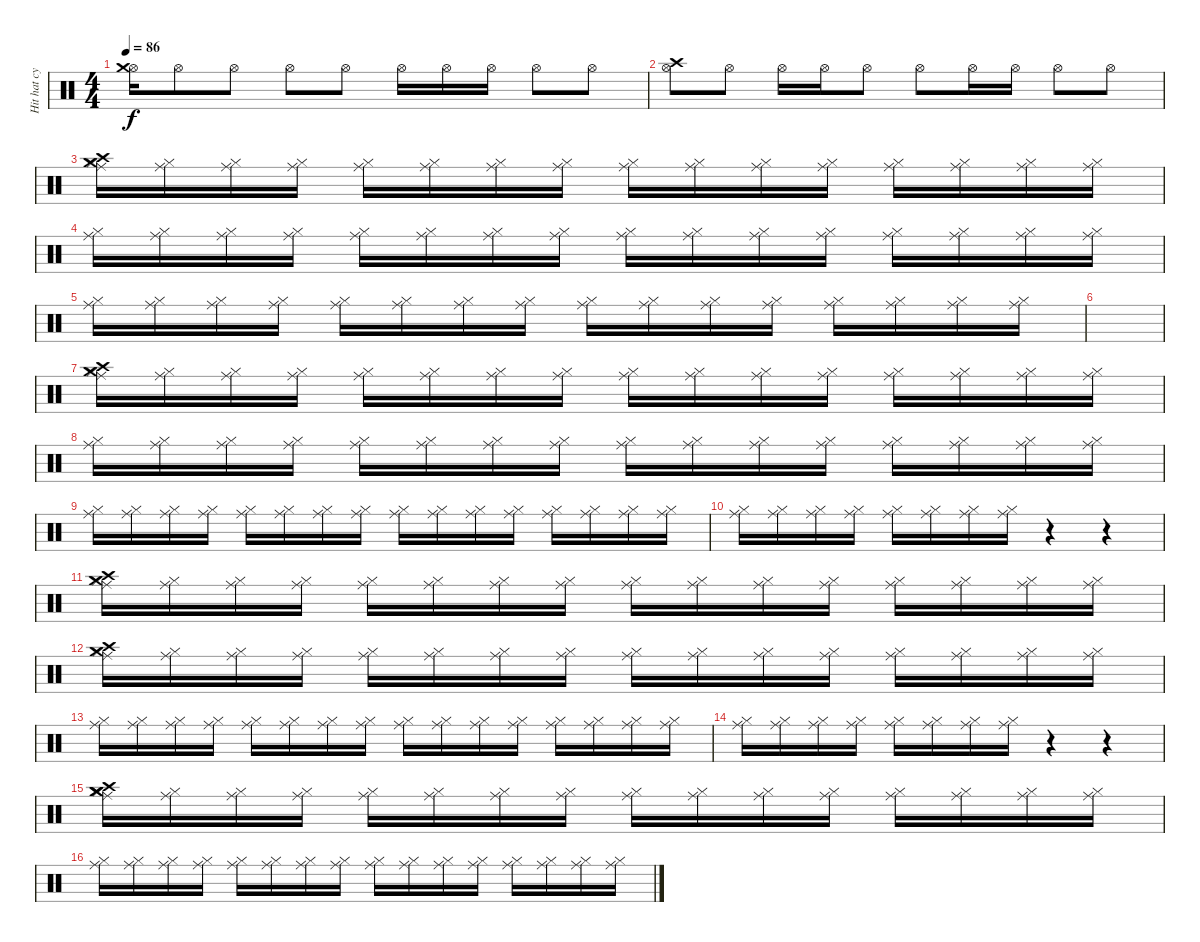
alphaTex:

\track ("Hit hat cymbal" "Hit hat cy") {instrument percussion}
\staff {score}
\articulation defaults
\ts (4 4)
\tempo 86
\clef neutral
\ks c
("Hi-Hat (open)" "Crash medium (hit)").16{dy f} "Hi-Hat (open)".8 "Hi-Hat (open)".8 "Hi-Hat (open)".8 "Hi-Hat (open)".8 "Hi-Hat (open)".16 "Hi-Hat (open)".16 "Hi-Hat (open)".16 "Hi-Hat (open)".8 "Hi-Hat (open)".8 |
("Hi-Hat (open)" "Crash high (hit)").8 "Hi-Hat (open)".8 "Hi-Hat (open)".16 "Hi-Hat (open)".16 "Hi-Hat (open)".8 "Hi-Hat (open)".8 "Hi-Hat (open)".16 "Hi-Hat (open)".16 "Hi-Hat (open)".8 "Hi-Hat (open)".8 |
("Ride (middle)" "Hi-Hat (closed)" "Crash medium (hit)" "Crash high (hit)").16 ("Ride (middle)" "Hi-Hat (closed)").16 ("Ride (middle)" "Hi-Hat (closed)").16 ("Ride (middle)" "Hi-Hat (closed)").16 ("Ride (middle)" "Hi-Hat (closed)").16 ("Ride (middle)" "Hi-Hat (closed)").16 ("Ride (middle)" "Hi-Hat (closed)").16 ("Ride (middle)" "Hi-Hat (closed)").16 ("Ride (middle)" "Hi-Hat (closed)").16 ("Ride (middle)" "Hi-Hat (closed)").16 ("Ride (middle)" "Hi-Hat (closed)").16 ("Ride (middle)" "Hi-Hat (closed)").16 ("Ride (middle)" "Hi-Hat (closed)").16 ("Ride (middle)" "Hi-Hat (closed)").16 ("Ride (middle)" "Hi-Hat (closed)").16 ("Ride (middle)" "Hi-Hat (closed)").16 |
("Ride (middle)" "Hi-Hat (closed)").16 ("Ride (middle)" "Hi-Hat (closed)").16 ("Ride (middle)" "Hi-Hat (closed)").16 ("Ride (middle)" "Hi-Hat (closed)").16 ("Ride (middle)" "Hi-Hat (closed)").16 ("Ride (middle)" "Hi-Hat (closed)").16 ("Ride (middle)" "Hi-Hat (closed)").16 ("Ride (middle)" "Hi-Hat (closed)").16 ("Ride (middle)" "Hi-Hat (closed)").16 ("Ride (middle)" "Hi-Hat (closed)").16 ("Ride (middle)" "Hi-Hat (closed)").16 ("Ride (middle)" "Hi-Hat (closed)").16 ("Ride (middle)" "Hi-Hat (closed)").16 ("Ride (middle)" "Hi-Hat (closed)").16 ("Ride (middle)" "Hi-Hat (closed)").16 ("Ride (middle)" "Hi-Hat (closed)").16 |
("Ride (middle)" "Hi-Hat (closed)").16 ("Ride (middle)" "Hi-Hat (closed)").16 ("Ride (middle)" "Hi-Hat (closed)").16 ("Ride (middle)" "Hi-Hat (closed)").16 ("Ride (middle)" "Hi-Hat (closed)").16 ("Ride (middle)" "Hi-Hat (closed)").16 ("Ride (middle)" "Hi-Hat (closed)").16 ("Ride (middle)" "Hi-Hat (closed)").16 ("Ride (middle)" "Hi-Hat (closed)").16 ("Ride (middle)" "Hi-Hat (closed)").16 ("Ride (middle)" "Hi-Hat (closed)").16 ("Ride (middle)" "Hi-Hat (closed)").16 ("Ride (middle)" "Hi-Hat (closed)").16 ("Ride (middle)" "Hi-Hat (closed)").16 ("Ride (middle)" "Hi-Hat (closed)").16 ("Ride (middle)" "Hi-Hat (closed)").16 |
|
("Ride (middle)" "Hi-Hat (closed)" "Crash medium (hit)" "Crash high (hit)").16 ("Ride (middle)" "Hi-Hat (closed)").16 ("Ride (middle)" "Hi-Hat (closed)").16 ("Ride (middle)" "Hi-Hat (closed)").16 ("Ride (middle)" "Hi-Hat (closed)").16 ("Ride (middle)" "Hi-Hat (closed)").16 ("Ride (middle)" "Hi-Hat (closed)").16 ("Ride (middle)" "Hi-Hat (closed)").16 ("Ride (middle)" "Hi-Hat (closed)").16 ("Ride (middle)" "Hi-Hat (closed)").16 ("Ride (middle)" "Hi-Hat (closed)").16 ("Ride (middle)" "Hi-Hat (closed)").16 ("Ride (middle)" "Hi-Hat (closed)").16 ("Ride (middle)" "Hi-Hat (closed)").16 ("Ride (middle)" "Hi-Hat (closed)").16 ("Ride (middle)" "Hi-Hat (closed)").16 |
("Ride (middle)" "Hi-Hat (closed)").16 ("Ride (middle)" "Hi-Hat (closed)").16 ("Ride (middle)" "Hi-Hat (closed)").16 ("Ride (middle)" "Hi-Hat (closed)").16 ("Ride (middle)" "Hi-Hat (closed)").16 ("Ride (middle)" "Hi-Hat (closed)").16 ("Ride (middle)" "Hi-Hat (closed)").16 ("Ride (middle)" "Hi-Hat (closed)").16 ("Ride (middle)" "Hi-Hat (closed)").16 ("Ride (middle)" "Hi-Hat (closed)").16 ("Ride (middle)" "Hi-Hat (closed)").16 ("Ride (middle)" "Hi-Hat (closed)").16 ("Ride (middle)" "Hi-Hat (closed)").16 ("Ride (middle)" "Hi-Hat (closed)").16 ("Ride (middle)" "Hi-Hat (closed)").16 ("Ride (middle)" "Hi-Hat (closed)").16 |
("Ride (middle)" "Hi-Hat (closed)").16 ("Ride (middle)" "Hi-Hat (closed)").16 ("Ride (middle)" "Hi-Hat (closed)").16 ("Ride (middle)" "Hi-Hat (closed)").16 ("Ride (middle)" "Hi-Hat (closed)").16 ("Ride (middle)" "Hi-Hat (closed)").16 ("Ride (middle)" "Hi-Hat (closed)").16 ("Ride (middle)" "Hi-Hat (closed)").16 ("Ride (middle)" "Hi-Hat (closed)").16 ("Ride (middle)" "Hi-Hat (closed)").16 ("Ride (middle)" "Hi-Hat (closed)").16 ("Ride (middle)" "Hi-Hat (closed)").16 ("Ride (middle)" "Hi-Hat (closed)").16 ("Ride (middle)" "Hi-Hat (closed)").16 ("Ride (middle)" "Hi-Hat (closed)").16 ("Ride (middle)" "Hi-Hat (closed)").16 |
("Ride (middle)" "Hi-Hat (closed)").16 ("Ride (middle)" "Hi-Hat (closed)").16 ("Ride (middle)" "Hi-Hat (closed)").16 ("Ride (middle)" "Hi-Hat (closed)").16 ("Ride (middle)" "Hi-Hat (closed)").16 ("Ride (middle)" "Hi-Hat (closed)").16 ("Ride (middle)" "Hi-Hat (closed)").16 ("Ride (middle)" "Hi-Hat (closed)").16 r.4 r.4 |
("Ride (middle)" "Hi-Hat (closed)" "Crash medium (hit)" "Crash high (hit)").16 ("Ride (middle)" "Hi-Hat (closed)").16 ("Ride (middle)" "Hi-Hat (closed)").16 ("Ride (middle)" "Hi-Hat (closed)").16 ("Ride (middle)" "Hi-Hat (closed)").16 ("Ride (middle)" "Hi-Hat (closed)").16 ("Ride (middle)" "Hi-Hat (closed)").16 ("Ride (middle)" "Hi-Hat (closed)").16 ("Ride (middle)" "Hi-Hat (closed)").16 ("Ride (middle)" "Hi-Hat (closed)").16 ("Ride (middle)" "Hi-Hat (closed)").16 ("Ride (middle)" "Hi-Hat (closed)").16 ("Ride (middle)" "Hi-Hat (closed)").16 ("Ride (middle)" "Hi-Hat (closed)").16 ("Ride (middle)" "Hi-Hat (closed)").16 ("Ride (middle)" "Hi-Hat (closed)").16 |
("Ride (middle)" "Hi-Hat (closed)" "Crash medium (hit)" "Crash high (hit)").16 ("Ride (middle)" "Hi-Hat (closed)").16 ("Ride (middle)" "Hi-Hat (closed)").16 ("Ride (middle)" "Hi-Hat (closed)").16 ("Ride (middle)" "Hi-Hat (closed)").16 ("Ride (middle)" "Hi-Hat (closed)").16 ("Ride (middle)" "Hi-Hat (closed)").16 ("Ride (middle)" "Hi-Hat (closed)").16 ("Ride (middle)" "Hi-Hat (closed)").16 ("Ride (middle)" "Hi-Hat (closed)").16 ("Ride (middle)" "Hi-Hat (closed)").16 ("Ride (middle)" "Hi-Hat (closed)").16 ("Ride (middle)" "Hi-Hat (closed)").16 ("Ride (middle)" "Hi-Hat (closed)").16 ("Ride (middle)" "Hi-Hat (closed)").16 ("Ride (middle)" "Hi-Hat (closed)").16 |
("Ride (middle)" "Hi-Hat (closed)").16 ("Ride (middle)" "Hi-Hat (closed)").16 ("Ride (middle)" "Hi-Hat (closed)").16 ("Ride (middle)" "Hi-Hat (closed)").16 ("Ride (middle)" "Hi-Hat (closed)").16 ("Ride (middle)" "Hi-Hat (closed)").16 ("Ride (middle)" "Hi-Hat (closed)").16 ("Ride (middle)" "Hi-Hat (closed)").16 ("Ride (middle)" "Hi-Hat (closed)").16 ("Ride (middle)" "Hi-Hat (closed)").16 ("Ride (middle)" "Hi-Hat (closed)").16 ("Ride (middle)" "Hi-Hat (closed)").16 ("Ride (middle)" "Hi-Hat (closed)").16 ("Ride (middle)" "Hi-Hat (closed)").16 ("Ride (middle)" "Hi-Hat (closed)").16 ("Ride (middle)" "Hi-Hat (closed)").16 |
("Ride (middle)" "Hi-Hat (closed)").16 ("Ride (middle)" "Hi-Hat (closed)").16 ("Ride (middle)" "Hi-Hat (closed)").16 ("Ride (middle)" "Hi-Hat (closed)").16 ("Ride (middle)" "Hi-Hat (closed)").16 ("Ride (middle)" "Hi-Hat (closed)").16 ("Ride (middle)" "Hi-Hat (closed)").16 ("Ride (middle)" "Hi-Hat (closed)").16 r.4 r.4 |
("Ride (middle)" "Hi-Hat (closed)" "Crash medium (hit)" "Crash medium (hit)" "Crash high (hit)").16 ("Ride (middle)" "Hi-Hat (closed)").16 ("Ride (middle)" "Hi-Hat (closed)").16 ("Ride (middle)" "Hi-Hat (closed)").16 ("Ride (middle)" "Hi-Hat (closed)").16 ("Ride (middle)" "Hi-Hat (closed)").16 ("Ride (middle)" "Hi-Hat (closed)").16 ("Ride (middle)" "Hi-Hat (closed)").16 ("Ride (middle)" "Hi-Hat (closed)").16 ("Ride (middle)" "Hi-Hat (closed)").16 ("Ride (middle)" "Hi-Hat (closed)").16 ("Ride (middle)" "Hi-Hat (closed)").16 ("Ride (middle)" "Hi-Hat (closed)").16 ("Ride (middle)" "Hi-Hat (closed)").16 ("Ride (middle)" "Hi-Hat (closed)").16 ("Ride (middle)" "Hi-Hat (closed)").16 |
("Ride (middle)" "Hi-Hat (closed)").16 ("Ride (middle)" "Hi-Hat (closed)").16 ("Ride (middle)" "Hi-Hat (closed)").16 ("Ride (middle)" "Hi-Hat (closed)").16 ("Ride (middle)" "Hi-Hat (closed)").16 ("Ride (middle)" "Hi-Hat (closed)").16 ("Ride (middle)" "Hi-Hat (closed)").16 ("Ride (middle)" "Hi-Hat (closed)").16 ("Ride (middle)" "Hi-Hat (closed)").16 ("Ride (middle)" "Hi-Hat (closed)").16 ("Ride (middle)" "Hi-Hat (closed)").16 ("Ride (middle)" "Hi-Hat (closed)").16 ("Ride (middle)" "Hi-Hat (closed)").16 ("Ride (middle)" "Hi-Hat (closed)").16 ("Ride (middle)" "Hi-Hat (closed)").16 ("Ride (middle)" "Hi-Hat (closed)").16
